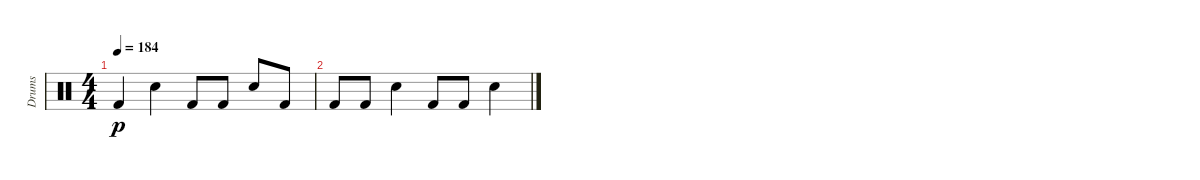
\track ("Drums" "Drums") {instrument percussion}
\staff {score}
\articulation defaults
\ts (4 4)
\tempo 184
\clef neutral
\ks c "Kick (hit) 2".4{dy p} "Snare (hit) 2".4 "Kick (hit) 2".8 "Kick (hit) 2".8 "Snare (hit) 2".8 "Kick (hit) 2".8
|
"Kick (hit) 2".8 "Kick (hit) 2".8 "Snare (hit) 2".4 "Kick (hit) 2".8 "Kick (hit) 2".8 "Snare (hit) 2".4
